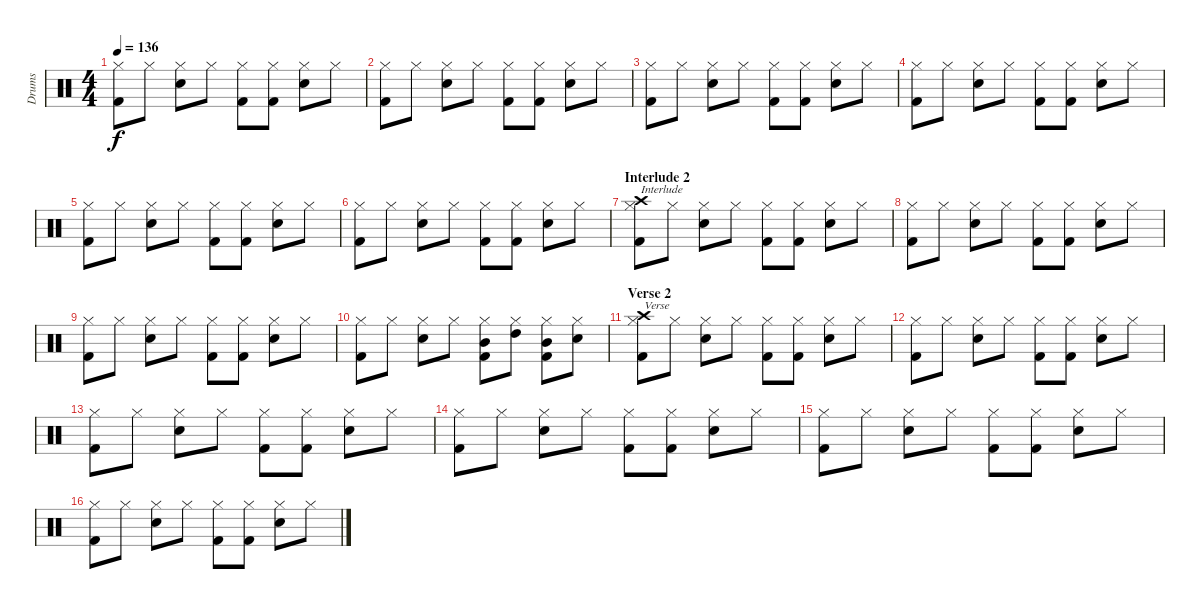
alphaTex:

\track ("Drums" "Drums") {instrument percussion}
\staff {score}
\articulation defaults
\ts (4 4)
\tempo 136
\clef neutral
\ks c
("Hi-Hat (closed)" "Kick (hit) 2").8{dy f} "Hi-Hat (closed)".8 ("Snare (hit) 2" "Hi-Hat (closed)").8 "Hi-Hat (closed)".8 ("Hi-Hat (closed)" "Kick (hit) 2").8 ("Hi-Hat (closed)" "Kick (hit) 2").8 ("Snare (hit) 2" "Hi-Hat (closed)").8 "Hi-Hat (closed)".8 |
("Hi-Hat (closed)" "Kick (hit) 2").8 "Hi-Hat (closed)".8 ("Snare (hit) 2" "Hi-Hat (closed)").8 "Hi-Hat (closed)".8 ("Hi-Hat (closed)" "Kick (hit) 2").8 ("Hi-Hat (closed)" "Kick (hit) 2").8 ("Snare (hit) 2" "Hi-Hat (closed)").8 "Hi-Hat (closed)".8 |
("Hi-Hat (closed)" "Kick (hit) 2").8 "Hi-Hat (closed)".8 ("Snare (hit) 2" "Hi-Hat (closed)").8 "Hi-Hat (closed)".8 ("Hi-Hat (closed)" "Kick (hit) 2").8 ("Hi-Hat (closed)" "Kick (hit) 2").8 ("Snare (hit) 2" "Hi-Hat (closed)").8 "Hi-Hat (closed)".8 |
("Hi-Hat (closed)" "Kick (hit) 2").8 "Hi-Hat (closed)".8 ("Snare (hit) 2" "Hi-Hat (closed)").8 "Hi-Hat (closed)".8 ("Hi-Hat (closed)" "Kick (hit) 2").8 ("Hi-Hat (closed)" "Kick (hit) 2").8 ("Snare (hit) 2" "Hi-Hat (closed)").8 "Hi-Hat (closed)".8 |
("Hi-Hat (closed)" "Kick (hit) 2").8 "Hi-Hat (closed)".8 ("Snare (hit) 2" "Hi-Hat (closed)").8 "Hi-Hat (closed)".8 ("Hi-Hat (closed)" "Kick (hit) 2").8 ("Hi-Hat (closed)" "Kick (hit) 2").8 ("Snare (hit) 2" "Hi-Hat (closed)").8 "Hi-Hat (closed)".8 |
("Hi-Hat (closed)" "Kick (hit) 2").8 "Hi-Hat (closed)".8 ("Snare (hit) 2" "Hi-Hat (closed)").8 "Hi-Hat (closed)".8 ("Hi-Hat (closed)" "Kick (hit) 2").8 ("Hi-Hat (closed)" "Kick (hit) 2").8 ("Snare (hit) 2" "Hi-Hat (closed)").8 "Hi-Hat (closed)".8 |
\section ("" "Interlude 2")
("Crash high (hit)" "Hi-Hat (closed)" "Kick (hit) 2").8{txt "Interlude"} "Hi-Hat (closed)".8 ("Snare (hit) 2" "Hi-Hat (closed)").8 "Hi-Hat (closed)".8 ("Hi-Hat (closed)" "Kick (hit) 2").8 ("Hi-Hat (closed)" "Kick (hit) 2").8 ("Snare (hit) 2" "Hi-Hat (closed)").8 "Hi-Hat (closed)".8 |
("Hi-Hat (closed)" "Kick (hit) 2").8 "Hi-Hat (closed)".8 ("Snare (hit) 2" "Hi-Hat (closed)").8 "Hi-Hat (closed)".8 ("Hi-Hat (closed)" "Kick (hit) 2").8 ("Hi-Hat (closed)" "Kick (hit) 2").8 ("Snare (hit) 2" "Hi-Hat (closed)").8 "Hi-Hat (closed)".8 |
("Hi-Hat (closed)" "Kick (hit) 2").8 "Hi-Hat (closed)".8 ("Snare (hit) 2" "Hi-Hat (closed)").8 "Hi-Hat (closed)".8 ("Hi-Hat (closed)" "Kick (hit) 2").8 ("Hi-Hat (closed)" "Kick (hit) 2").8 ("Snare (hit) 2" "Hi-Hat (closed)").8 "Hi-Hat (closed)".8 |
("Hi-Hat (closed)" "Kick (hit) 2").8 "Hi-Hat (closed)".8 ("Snare (hit) 2" "Hi-Hat (closed)").8 "Hi-Hat (closed)".8 ("Mid Tom (hit)" "Hi-Hat (closed)" "Kick (hit) 2").8 ("High Tom (hit)" "Hi-Hat (closed)").8 ("Mid Tom (hit)" "Hi-Hat (closed)" "Kick (hit) 2").8 ("Snare (hit) 2" "Hi-Hat (closed)").8 |
\section ("" "Verse 2")
("Crash high (hit)" "Hi-Hat (closed)" "Kick (hit) 2").8{txt "Verse"} "Hi-Hat (closed)".8 ("Snare (hit) 2" "Hi-Hat (closed)").8 "Hi-Hat (closed)".8 ("Hi-Hat (closed)" "Kick (hit) 2").8 ("Hi-Hat (closed)" "Kick (hit) 2").8 ("Snare (hit) 2" "Hi-Hat (closed)").8 "Hi-Hat (closed)".8 |
("Hi-Hat (closed)" "Kick (hit) 2").8 "Hi-Hat (closed)".8 ("Snare (hit) 2" "Hi-Hat (closed)").8 "Hi-Hat (closed)".8 ("Hi-Hat (closed)" "Kick (hit) 2").8 ("Hi-Hat (closed)" "Kick (hit) 2").8 ("Snare (hit) 2" "Hi-Hat (closed)").8 "Hi-Hat (closed)".8 |
("Hi-Hat (closed)" "Kick (hit) 2").8 "Hi-Hat (closed)".8 ("Snare (hit) 2" "Hi-Hat (closed)").8 "Hi-Hat (closed)".8 ("Hi-Hat (closed)" "Kick (hit) 2").8 ("Hi-Hat (closed)" "Kick (hit) 2").8 ("Snare (hit) 2" "Hi-Hat (closed)").8 "Hi-Hat (closed)".8 |
("Hi-Hat (closed)" "Kick (hit) 2").8 "Hi-Hat (closed)".8 ("Snare (hit) 2" "Hi-Hat (closed)").8 "Hi-Hat (closed)".8 ("Hi-Hat (closed)" "Kick (hit) 2").8 ("Hi-Hat (closed)" "Kick (hit) 2").8 ("Snare (hit) 2" "Hi-Hat (closed)").8 "Hi-Hat (closed)".8 |
("Hi-Hat (closed)" "Kick (hit) 2").8 "Hi-Hat (closed)".8 ("Snare (hit) 2" "Hi-Hat (closed)").8 "Hi-Hat (closed)".8 ("Hi-Hat (closed)" "Kick (hit) 2").8 ("Hi-Hat (closed)" "Kick (hit) 2").8 ("Snare (hit) 2" "Hi-Hat (closed)").8 "Hi-Hat (closed)".8 |
("Hi-Hat (closed)" "Kick (hit) 2").8 "Hi-Hat (closed)".8 ("Snare (hit) 2" "Hi-Hat (closed)").8 "Hi-Hat (closed)".8 ("Hi-Hat (closed)" "Kick (hit) 2").8 ("Hi-Hat (closed)" "Kick (hit) 2").8 ("Snare (hit) 2" "Hi-Hat (closed)").8 "Hi-Hat (closed)".8
